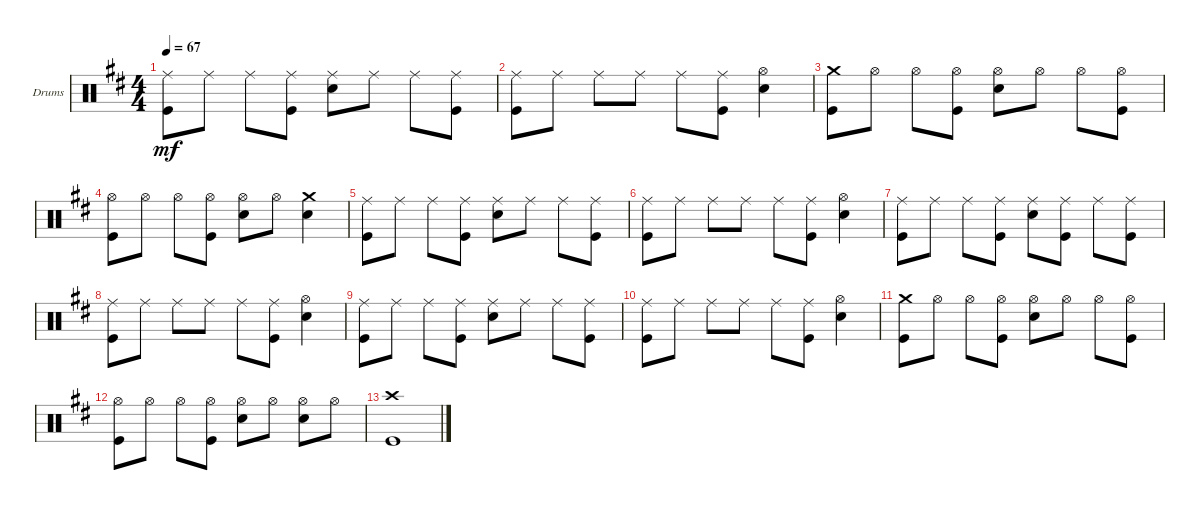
\defaultSystemsLayout 4
\bracketExtendMode groupsimilarinstruments
\firstSystemTrackNameOrientation horizontal
\otherSystemsTrackNameOrientation horizontal
\track ("Drumkit" "Drums") {instrument percussion}
\staff {score}
\articulation defaults
\ts (4 4)
\tempo 67
\clef neutral
\scale
0.333333
\ks d
("Ride (middle)" "Kick (hit)").8{dy mf} "Ride (middle)".8 "Ride (middle)".8 ("Kick (hit)" "Ride (middle)").8 ("Snare (hit) 2" "Ride (middle)").8 "Ride (middle)".8 "Ride (middle)".8 ("Kick (hit)" "Ride (middle)").8 |
\scale
0.333333 ("Kick (hit)" "Ride (middle)").8 "Ride (middle)".8 "Ride (middle)".8 "Ride (middle)".8 "Ride (middle)".8 ("Kick (hit)" "Ride (middle)").8 ("Snare (hit) 2" "Hi-Hat (open)").4 |
\scale
0.333333 ("Crash medium (hit)" "Kick (hit)").8 "Hi-Hat (open)".8 "Hi-Hat (open)".8 ("Kick (hit)" "Hi-Hat (open)").8 ("Snare (hit) 2" "Hi-Hat (open)").8 "Hi-Hat (open)".8 "Hi-Hat (open)".8 ("Kick (hit)" "Hi-Hat (open)").8 |
\scale
0.333333 ("Kick (hit)" "Hi-Hat (open)").8 "Hi-Hat (open)".8 "Hi-Hat (open)".8 ("Kick (hit)" "Hi-Hat (open)").8 ("Snare (hit) 2" "Hi-Hat (open)").8 "Hi-Hat (open)".8 ("Snare (hit) 2" "Crash medium (hit)").4 |
\scale
0.333333 ("Ride (middle)" "Kick (hit)").8 "Ride (middle)".8 "Ride (middle)".8 ("Kick (hit)" "Ride (middle)").8 ("Snare (hit) 2" "Ride (middle)").8 "Ride (middle)".8 "Ride (middle)".8 ("Kick (hit)" "Ride (middle)").8 |
\scale
0.333333 ("Kick (hit)" "Ride (middle)").8 "Ride (middle)".8 "Ride (middle)".8 "Ride (middle)".8 "Ride (middle)".8 ("Kick (hit)" "Ride (middle)").8 ("Snare (hit) 2" "Hi-Hat (open)").4 |
\scale
0.333333 ("Ride (middle)" "Kick (hit)").8 "Ride (middle)".8 "Ride (middle)".8 ("Kick (hit)" "Ride (middle)").8 ("Snare (hit) 2" "Ride (middle)").8 ("Ride (middle)" "Kick (hit)").8 "Ride (middle)".8 ("Kick (hit)" "Ride (middle)").8 |
\scale
0.333333 ("Kick (hit)" "Ride (middle)").8 "Ride (middle)".8 "Ride (middle)".8 "Ride (middle)".8 "Ride (middle)".8 ("Kick (hit)" "Ride (middle)").8 ("Snare (hit) 2" "Hi-Hat (open)").4 |
\scale
0.333333 ("Ride (middle)" "Kick (hit)").8 "Ride (middle)".8 "Ride (middle)".8 ("Kick (hit)" "Ride (middle)").8 ("Snare (hit) 2" "Ride (middle)").8 "Ride (middle)".8 "Ride (middle)".8 ("Kick (hit)" "Ride (middle)").8 |
\scale
0.333333 ("Kick (hit)" "Ride (middle)").8 "Ride (middle)".8 "Ride (middle)".8 "Ride (middle)".8 "Ride (middle)".8 ("Kick (hit)" "Ride (middle)").8 ("Snare (hit) 2" "Hi-Hat (open)").4 |
\scale
0.333333 ("Crash medium (hit)" "Kick (hit)").8 "Hi-Hat (open)".8 "Hi-Hat (open)".8 ("Kick (hit)" "Hi-Hat (open)").8 ("Snare (hit) 2" "Hi-Hat (open)").8 "Hi-Hat (open)".8 "Hi-Hat (open)".8 ("Kick (hit)" "Hi-Hat (open)").8 |
\scale
0.333333 ("Kick (hit)" "Hi-Hat (open)").8 "Hi-Hat (open)".8 "Hi-Hat (open)".8 ("Kick (hit)" "Hi-Hat (open)").8 ("Snare (hit) 2" "Hi-Hat (open)").8 "Hi-Hat (open)".8 ("Snare (hit) 2" "Hi-Hat (open)").8 "Hi-Hat (open)".8 |
\scale
0.333333 ("Crash high (hit)" "Kick (hit)").1 |
\scale
0.333333 |
\scale
0.333333 |
\scale
0.333333
